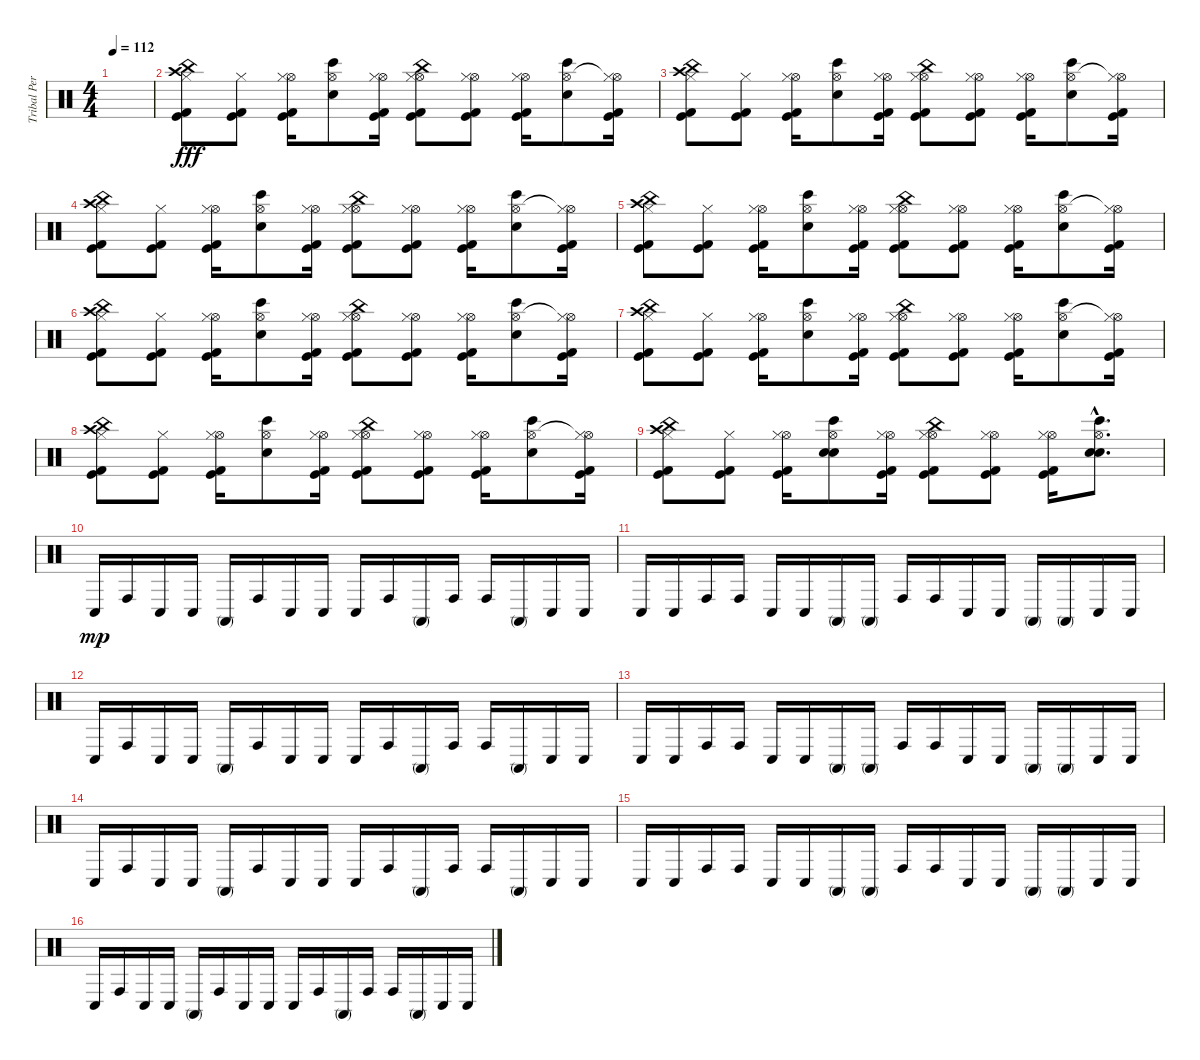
\track ("Tribal Percussion" "Tribal Per") {instrument percussion}
\staff {score}
\articulation defaults
\ts (4 4)
\tempo 112
\clef neutral
\ks c
|
("China (hit)" "Crash high (hit)" "Kick (hit)" "Hi-Hat (closed)" "Kick (hit) 2").8{dy fff} ("Kick (hit)" "Hi-Hat (closed)" "Kick (hit) 2").8 ("Hi-Hat (open)" "Kick (hit)" "Hi-Hat (closed)" "Kick (hit) 2").16 ("Hi-Hat (open)" "Bongo High (hit)" "Snare (hit) 2").8 ("Hi-Hat (open)" "Kick (hit)" "Hi-Hat (closed)" "Kick (hit) 2").16 ("China (hit)" "Hi-Hat (open)" "Kick (hit)" "Hi-Hat (closed)" "Kick (hit) 2").8 ("Hi-Hat (open)" "Kick (hit)" "Hi-Hat (closed)" "Kick (hit) 2").8 ("Hi-Hat (open)" "Kick (hit)" "Hi-Hat (closed)" "Kick (hit) 2").16 ("Hi-Hat (open)" "Bongo High (hit)" "Snare (hit) 2").8 ("Hi-Hat (open)"{t} "Kick (hit)" "Hi-Hat (closed)" "Kick (hit) 2").16 |
("China (hit)" "Crash high (hit)" "Kick (hit)" "Hi-Hat (closed)" "Kick (hit) 2").8 ("Kick (hit)" "Hi-Hat (closed)" "Kick (hit) 2").8 ("Hi-Hat (open)" "Kick (hit)" "Hi-Hat (closed)" "Kick (hit) 2").16 ("Hi-Hat (open)" "Bongo High (hit)" "Snare (hit) 2").8 ("Hi-Hat (open)" "Kick (hit)" "Hi-Hat (closed)" "Kick (hit) 2").16 ("China (hit)" "Hi-Hat (open)" "Kick (hit)" "Hi-Hat (closed)" "Kick (hit) 2").8 ("Hi-Hat (open)" "Kick (hit)" "Hi-Hat (closed)" "Kick (hit) 2").8 ("Hi-Hat (open)" "Kick (hit)" "Hi-Hat (closed)" "Kick (hit) 2").16 ("Hi-Hat (open)" "Bongo High (hit)" "Snare (hit) 2").8 ("Hi-Hat (open)"{t} "Kick (hit)" "Hi-Hat (closed)" "Kick (hit) 2").16 |
("China (hit)" "Crash high (hit)" "Kick (hit)" "Hi-Hat (closed)" "Kick (hit) 2").8 ("Kick (hit)" "Hi-Hat (closed)" "Kick (hit) 2").8 ("Hi-Hat (open)" "Kick (hit)" "Hi-Hat (closed)" "Kick (hit) 2").16 ("Hi-Hat (open)" "Bongo High (hit)" "Snare (hit) 2").8 ("Hi-Hat (open)" "Kick (hit)" "Hi-Hat (closed)" "Kick (hit) 2").16 ("China (hit)" "Hi-Hat (open)" "Kick (hit)" "Hi-Hat (closed)" "Kick (hit) 2").8 ("Hi-Hat (open)" "Kick (hit)" "Hi-Hat (closed)" "Kick (hit) 2").8 ("Hi-Hat (open)" "Kick (hit)" "Hi-Hat (closed)" "Kick (hit) 2").16 ("Hi-Hat (open)" "Bongo High (hit)" "Snare (hit) 2").8 ("Hi-Hat (open)"{t} "Kick (hit)" "Hi-Hat (closed)" "Kick (hit) 2").16 |
("China (hit)" "Crash high (hit)" "Kick (hit)" "Hi-Hat (closed)" "Kick (hit) 2").8 ("Kick (hit)" "Hi-Hat (closed)" "Kick (hit) 2").8 ("Hi-Hat (open)" "Kick (hit)" "Hi-Hat (closed)" "Kick (hit) 2").16 ("Hi-Hat (open)" "Bongo High (hit)" "Snare (hit) 2").8 ("Hi-Hat (open)" "Kick (hit)" "Hi-Hat (closed)" "Kick (hit) 2").16 ("China (hit)" "Hi-Hat (open)" "Kick (hit)" "Hi-Hat (closed)" "Kick (hit) 2").8 ("Hi-Hat (open)" "Kick (hit)" "Hi-Hat (closed)" "Kick (hit) 2").8 ("Hi-Hat (open)" "Kick (hit)" "Hi-Hat (closed)" "Kick (hit) 2").16 ("Hi-Hat (open)" "Bongo High (hit)" "Snare (hit) 2").8 ("Hi-Hat (open)"{t} "Kick (hit)" "Hi-Hat (closed)" "Kick (hit) 2").16 |
("China (hit)" "Crash high (hit)" "Kick (hit)" "Hi-Hat (closed)" "Kick (hit) 2").8 ("Kick (hit)" "Hi-Hat (closed)" "Kick (hit) 2").8 ("Hi-Hat (open)" "Kick (hit)" "Hi-Hat (closed)" "Kick (hit) 2").16 ("Hi-Hat (open)" "Bongo High (hit)" "Snare (hit) 2").8 ("Hi-Hat (open)" "Kick (hit)" "Hi-Hat (closed)" "Kick (hit) 2").16 ("China (hit)" "Hi-Hat (open)" "Kick (hit)" "Hi-Hat (closed)" "Kick (hit) 2").8 ("Hi-Hat (open)" "Kick (hit)" "Hi-Hat (closed)" "Kick (hit) 2").8 ("Hi-Hat (open)" "Kick (hit)" "Hi-Hat (closed)" "Kick (hit) 2").16 ("Hi-Hat (open)" "Bongo High (hit)" "Snare (hit) 2").8 ("Hi-Hat (open)"{t} "Kick (hit)" "Hi-Hat (closed)" "Kick (hit) 2").16 |
("China (hit)" "Crash high (hit)" "Kick (hit)" "Hi-Hat (closed)" "Kick (hit) 2").8 ("Kick (hit)" "Hi-Hat (closed)" "Kick (hit) 2").8 ("Hi-Hat (open)" "Kick (hit)" "Hi-Hat (closed)" "Kick (hit) 2").16 ("Hi-Hat (open)" "Bongo High (hit)" "Snare (hit) 2").8 ("Hi-Hat (open)" "Kick (hit)" "Hi-Hat (closed)" "Kick (hit) 2").16 ("China (hit)" "Hi-Hat (open)" "Kick (hit)" "Hi-Hat (closed)" "Kick (hit) 2").8 ("Hi-Hat (open)" "Kick (hit)" "Hi-Hat (closed)" "Kick (hit) 2").8 ("Hi-Hat (open)" "Kick (hit)" "Hi-Hat (closed)" "Kick (hit) 2").16 ("Hi-Hat (open)" "Bongo High (hit)" "Snare (hit) 2").8 ("Hi-Hat (open)"{t} "Kick (hit)" "Hi-Hat (closed)" "Kick (hit) 2").16 |
("China (hit)" "Crash high (hit)" "Kick (hit)" "Hi-Hat (closed)" "Kick (hit) 2").8 ("Kick (hit)" "Hi-Hat (closed)" "Kick (hit) 2").8 ("Hi-Hat (open)" "Kick (hit)" "Hi-Hat (closed)" "Kick (hit) 2").16 ("Hi-Hat (open)" "Bongo High (hit)" "Snare (hit) 2").8 ("Hi-Hat (open)" "Kick (hit)" "Hi-Hat (closed)" "Kick (hit) 2").16 ("China (hit)" "Hi-Hat (open)" "Kick (hit)" "Hi-Hat (closed)" "Kick (hit) 2").8 ("Hi-Hat (open)" "Kick (hit)" "Hi-Hat (closed)" "Kick (hit) 2").8 ("Hi-Hat (open)" "Kick (hit)" "Hi-Hat (closed)" "Kick (hit) 2").16 ("Hi-Hat (open)" "Bongo High (hit)" "Snare (hit) 2").8 ("Hi-Hat (open)"{t} "Kick (hit)" "Hi-Hat (closed)" "Kick (hit) 2").16 |
("China (hit)" "Crash high (hit)" "Kick (hit)" "Hi-Hat (closed)" "Kick (hit) 2").8 ("Kick (hit)" "Hi-Hat (closed)" "Kick (hit) 2").8 ("Hi-Hat (open)" "Kick (hit)" "Hi-Hat (closed)" "Kick (hit) 2").16 ("Hi-Hat (open)" "Electric Snare (hit)" "Bongo High (hit)" "Snare (hit) 2").8 ("Hi-Hat (open)" "Kick (hit)" "Hi-Hat (closed)" "Kick (hit) 2").16 ("China (hit)" "Hi-Hat (open)" "Kick (hit)" "Hi-Hat (closed)" "Kick (hit) 2").8 ("Hi-Hat (open)" "Kick (hit)" "Hi-Hat (closed)" "Kick (hit) 2").8 ("Hi-Hat (open)" "Kick (hit)" "Hi-Hat (closed)" "Kick (hit) 2").16 ("Hi-Hat (open)"{hac} "Electric Snare (hit)"{hac} "Bongo High (hit)"{hac} "Snare (hit) 2"{hac}).8{d} |
"Conga low (hit)".16{dy mp} "Conga high (hit)".16 "Conga low (hit)".16 "Conga low (hit)".16 "Conga high (mute)".16 "Conga high (hit)".16 "Conga low (hit)".16 "Conga low (hit)".16 "Conga low (hit)".16 "Conga high (hit)".16 "Conga high (mute)".16 "Conga high (hit)".16 "Conga high (hit)".16 "Conga high (mute)".16 "Conga low (hit)".16 "Conga low (hit)".16 |
"Conga low (hit)".16 "Conga low (hit)".16 "Conga high (hit)".16 "Conga high (hit)".16 "Conga low (hit)".16 "Conga low (hit)".16 "Conga high (mute)".16 "Conga high (mute)".16 "Conga high (hit)".16 "Conga high (hit)".16 "Conga low (hit)".16 "Conga low (hit)".16 "Conga high (mute)".16 "Conga high (mute)".16 "Conga low (hit)".16 "Conga low (hit)".16 |
"Conga low (hit)".16 "Conga high (hit)".16 "Conga low (hit)".16 "Conga low (hit)".16 "Conga high (mute)".16 "Conga high (hit)".16 "Conga low (hit)".16 "Conga low (hit)".16 "Conga low (hit)".16 "Conga high (hit)".16 "Conga high (mute)".16 "Conga high (hit)".16 "Conga high (hit)".16 "Conga high (mute)".16 "Conga low (hit)".16 "Conga low (hit)".16 |
"Conga low (hit)".16 "Conga low (hit)".16 "Conga high (hit)".16 "Conga high (hit)".16 "Conga low (hit)".16 "Conga low (hit)".16 "Conga high (mute)".16 "Conga high (mute)".16 "Conga high (hit)".16 "Conga high (hit)".16 "Conga low (hit)".16 "Conga low (hit)".16 "Conga high (mute)".16 "Conga high (mute)".16 "Conga low (hit)".16 "Conga low (hit)".16 |
"Conga low (hit)".16 "Conga high (hit)".16 "Conga low (hit)".16 "Conga low (hit)".16 "Conga high (mute)".16 "Conga high (hit)".16 "Conga low (hit)".16 "Conga low (hit)".16 "Conga low (hit)".16 "Conga high (hit)".16 "Conga high (mute)".16 "Conga high (hit)".16 "Conga high (hit)".16 "Conga high (mute)".16 "Conga low (hit)".16 "Conga low (hit)".16 |
"Conga low (hit)".16 "Conga low (hit)".16 "Conga high (hit)".16 "Conga high (hit)".16 "Conga low (hit)".16 "Conga low (hit)".16 "Conga high (mute)".16 "Conga high (mute)".16 "Conga high (hit)".16 "Conga high (hit)".16 "Conga low (hit)".16 "Conga low (hit)".16 "Conga high (mute)".16 "Conga high (mute)".16 "Conga low (hit)".16 "Conga low (hit)".16 |
"Conga low (hit)".16 "Conga high (hit)".16 "Conga low (hit)".16 "Conga low (hit)".16 "Conga high (mute)".16 "Conga high (hit)".16 "Conga low (hit)".16 "Conga low (hit)".16 "Conga low (hit)".16 "Conga high (hit)".16 "Conga high (mute)".16 "Conga high (hit)".16 "Conga high (hit)".16 "Conga high (mute)".16 "Conga low (hit)".16 "Conga low (hit)".16
